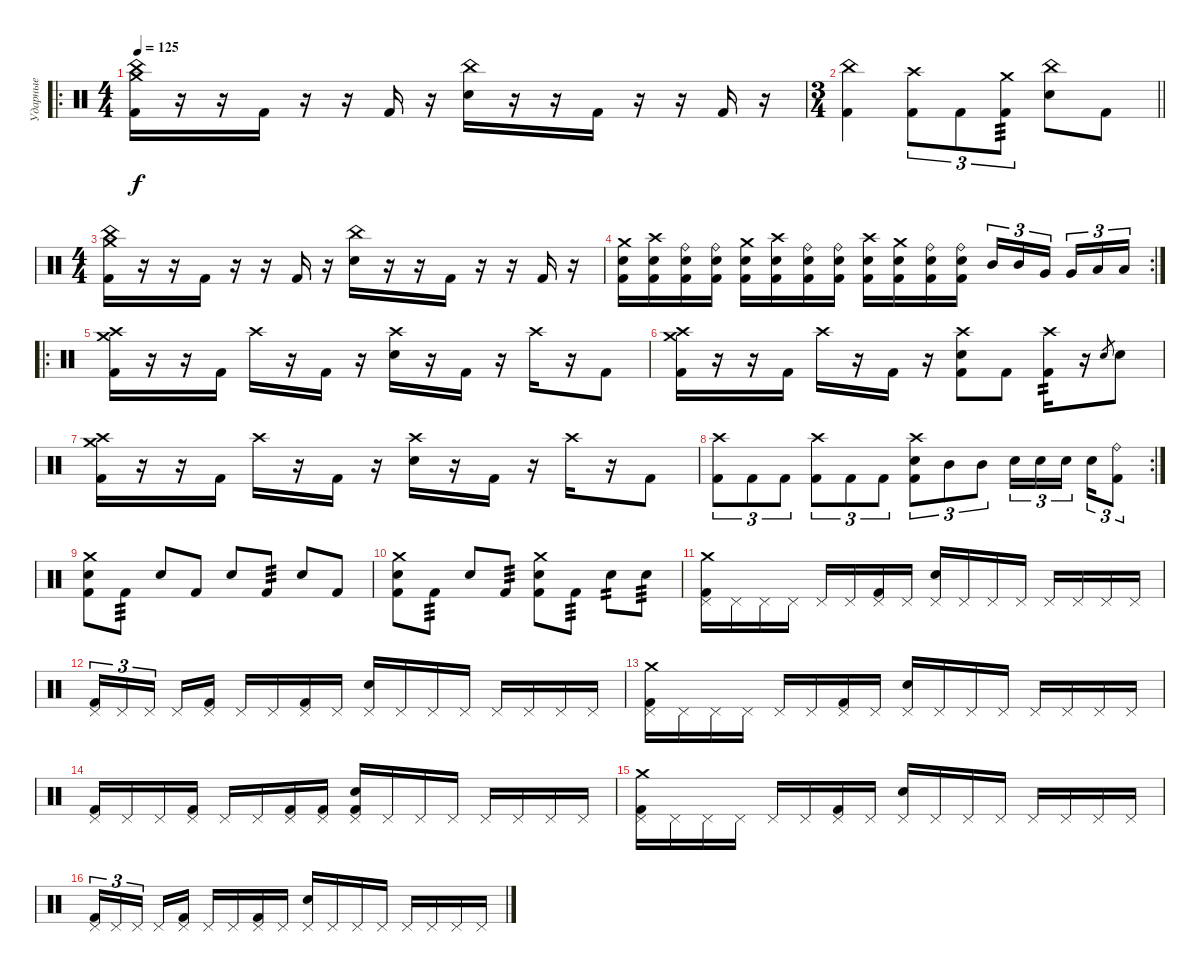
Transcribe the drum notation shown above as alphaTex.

\track ("Ударные" "Ударные") {instrument percussion}
\staff {score}
\articulation defaults
\ro
\ts (4 4)
\tempo 125
\clef neutral
\ks c
("China (hit)" "Crash medium (hit)" "Kick (hit) 2").16{dy f} r.16 r.16 "Kick (hit) 2".16 r.16 r.16 "Kick (hit) 2".16 r.16 ("China (hit)" "Snare (hit) 2").16 r.16 r.16 "Kick (hit) 2".16 r.16 r.16 "Kick (hit) 2".16 r.16 |
\ts (3 4)
\barLineRight lightlight
("China (hit)" "Kick (hit) 2").4 ("Crash high (hit)" "Kick (hit) 2").8{tu (3 2)} "Kick (hit) 2".8{tu (3 2)} ("Crash medium (hit)" "Kick (hit) 2").8{tu (3 2) tp 3} ("China (hit)" "Snare (hit) 2").8 "Kick (hit) 2".8 |
\ts (4 4)
("China (hit)" "Crash medium (hit)" "Kick (hit) 2").16 r.16 r.16 "Kick (hit) 2".16 r.16 r.16 "Kick (hit) 2".16 r.16 ("China (hit)" "Snare (hit) 2").16 r.16 r.16 "Kick (hit) 2".16 r.16 r.16 "Kick (hit) 2".16 r.16 |
\rc 2
("Crash medium (hit)" "Snare (hit) 2" "Kick (hit) 2").16 ("Crash high (hit)" "Snare (hit) 2" "Kick (hit) 2").16 ("Ride (bell)" "Snare (hit) 2" "Kick (hit) 2").16 ("Ride (bell)" "Snare (hit) 2" "Kick (hit) 2").16 ("Crash medium (hit)" "Snare (hit) 2" "Kick (hit) 2").16 ("Crash high (hit)" "Snare (hit) 2" "Kick (hit) 2").16 ("Ride (bell)" "Snare (hit) 2" "Kick (hit) 2").16 ("Ride (bell)" "Snare (hit) 2" "Kick (hit) 2").16 ("Crash high (hit)" "Snare (hit) 2" "Kick (hit) 2").16 ("Crash medium (hit)" "Snare (hit) 2" "Kick (hit) 2").16 ("Ride (bell)" "Snare (hit) 2" "Kick (hit) 2").16 ("Ride (bell)" "Snare (hit) 2" "Kick (hit) 2").16 "Mid Tom (hit)".16{tu (3 2)} "Mid Tom (hit)".16{tu (3 2)} "Very Low Tom (hit)".16{tu (3 2) beam splitsecondary} "Very Low Tom (hit)".16{tu (3 2)} "Low Floor Tom (hit)".16{tu (3 2)} "Low Floor Tom (hit)".16{tu (3 2)} |
\ro
("Crash high (hit)" "Crash medium (hit)" "Kick (hit) 2").16 r.16 r.16 "Kick (hit) 2".16 "Crash high (hit)".16 r.16 "Kick (hit) 2".16 r.16 ("Crash high (hit)" "Snare (hit) 2").16 r.16 "Kick (hit) 2".16 r.16 "Crash high (hit)".16 r.16 "Kick (hit) 2".8 |
("Crash high (hit)" "Crash medium (hit)" "Kick (hit) 2").16 r.16 r.16 "Kick (hit) 2".16 "Crash high (hit)".16 r.16 "Kick (hit) 2".16 r.16 ("Crash high (hit)" "Snare (hit) 2" "Kick (hit) 2").8 "Kick (hit) 2".8 ("Crash high (hit)" "Kick (hit) 2").16{tp 2} r.16 "Electric Snare (hit)".8{gr} "Electric Snare (hit)".8 |
("Crash high (hit)" "Crash medium (hit)" "Kick (hit) 2").16 r.16 r.16 "Kick (hit) 2".16 "Crash high (hit)".16 r.16 "Kick (hit) 2".16 r.16 ("Crash high (hit)" "Snare (hit) 2").16 r.16 "Kick (hit) 2".16 r.16 "Crash high (hit)".16 r.16 "Kick (hit) 2".8 |
\rc 2
("Crash high (hit)" "Kick (hit) 2").8{tu (3 2)} "Kick (hit) 2".8{tu (3 2)} "Kick (hit) 2".8{tu (3 2)} ("Crash high (hit)" "Kick (hit) 2").8{tu (3 2)} "Kick (hit) 2".8{tu (3 2)} "Kick (hit) 2".8{tu (3 2)} ("Snare (hit) 2" "Crash high (hit)" "Kick (hit) 2").8{tu (3 2)} "Mid Tom (hit)".8{tu (3 2)} "Mid Tom (hit)".8{tu (3 2)} "Snare (hit) 2".16{tu (3 2)} "Snare (hit) 2".16{tu (3 2)} "Snare (hit) 2".16{tu (3 2) beam splitsecondary} "Snare (hit) 2".16{tu (3 2)} ("Ride (bell)" "Kick (hit) 2").8{tu (3 2)} |
("Crash medium (hit)" "Snare (hit) 2" "Kick (hit) 2").8 "Kick (hit) 2".8{tp 3} "Snare (hit) 2".8 "Kick (hit) 2".8 "Snare (hit) 2".8 "Kick (hit) 2".8{tp 3} "Snare (hit) 2".8 "Kick (hit) 2".8 |
("Crash medium (hit)" "Snare (hit) 2" "Kick (hit) 2").8 "Kick (hit) 2".8{tp 3} "Snare (hit) 2".8 "Kick (hit) 2".8{tp 3} ("Crash medium (hit)" "Snare (hit) 2" "Kick (hit) 2").8 "Kick (hit) 2".8{tp 3} "Snare (hit) 2".8{tp 2} "Snare (hit) 2".8{tp 3} |
("Crash medium (hit)" "Pedal Hi-Hat (hit)" "Kick (hit) 2").16 "Pedal Hi-Hat (hit)".16 "Pedal Hi-Hat (hit)".16 "Pedal Hi-Hat (hit)".16 "Pedal Hi-Hat (hit)".16 "Pedal Hi-Hat (hit)".16 ("Pedal Hi-Hat (hit)" "Kick (hit) 2").16 "Pedal Hi-Hat (hit)".16 ("Hand Clap (hit)" "Pedal Hi-Hat (hit)").16 "Pedal Hi-Hat (hit)".16 "Pedal Hi-Hat (hit)".16 "Pedal Hi-Hat (hit)".16 "Pedal Hi-Hat (hit)".16 "Pedal Hi-Hat (hit)".16 "Pedal Hi-Hat (hit)".16 "Pedal Hi-Hat (hit)".16 |
("Pedal Hi-Hat (hit)" "Kick (hit) 2").16{tu (3 2)} "Pedal Hi-Hat (hit)".16{tu (3 2)} "Pedal Hi-Hat (hit)".16{tu (3 2) beam splitsecondary} "Pedal Hi-Hat (hit)".16 ("Pedal Hi-Hat (hit)" "Kick (hit) 2").16 "Pedal Hi-Hat (hit)".16 "Pedal Hi-Hat (hit)".16 ("Pedal Hi-Hat (hit)" "Kick (hit) 2").16 "Pedal Hi-Hat (hit)".16 ("Hand Clap (hit)" "Pedal Hi-Hat (hit)").16 "Pedal Hi-Hat (hit)".16 "Pedal Hi-Hat (hit)".16 "Pedal Hi-Hat (hit)".16 "Pedal Hi-Hat (hit)".16 "Pedal Hi-Hat (hit)".16 "Pedal Hi-Hat (hit)".16 "Pedal Hi-Hat (hit)".16 |
("Crash medium (hit)" "Pedal Hi-Hat (hit)" "Kick (hit) 2").16 "Pedal Hi-Hat (hit)".16 "Pedal Hi-Hat (hit)".16 "Pedal Hi-Hat (hit)".16 "Pedal Hi-Hat (hit)".16 "Pedal Hi-Hat (hit)".16 ("Pedal Hi-Hat (hit)" "Kick (hit) 2").16 "Pedal Hi-Hat (hit)".16 ("Hand Clap (hit)" "Pedal Hi-Hat (hit)").16 "Pedal Hi-Hat (hit)".16 "Pedal Hi-Hat (hit)".16 "Pedal Hi-Hat (hit)".16 "Pedal Hi-Hat (hit)".16 "Pedal Hi-Hat (hit)".16 "Pedal Hi-Hat (hit)".16 "Pedal Hi-Hat (hit)".16 |
("Pedal Hi-Hat (hit)" "Kick (hit) 2").16 "Pedal Hi-Hat (hit)".16 "Pedal Hi-Hat (hit)".16 ("Pedal Hi-Hat (hit)" "Kick (hit) 2").16 "Pedal Hi-Hat (hit)".16 "Pedal Hi-Hat (hit)".16 ("Pedal Hi-Hat (hit)" "Kick (hit) 2").16 ("Pedal Hi-Hat (hit)" "Kick (hit) 2").16 ("Hand Clap (hit)" "Pedal Hi-Hat (hit)" "Kick (hit) 2").16 "Pedal Hi-Hat (hit)".16 "Pedal Hi-Hat (hit)".16 "Pedal Hi-Hat (hit)".16 "Pedal Hi-Hat (hit)".16 "Pedal Hi-Hat (hit)".16 "Pedal Hi-Hat (hit)".16 "Pedal Hi-Hat (hit)".16 |
("Crash medium (hit)" "Pedal Hi-Hat (hit)" "Kick (hit) 2").16 "Pedal Hi-Hat (hit)".16 "Pedal Hi-Hat (hit)".16 "Pedal Hi-Hat (hit)".16 "Pedal Hi-Hat (hit)".16 "Pedal Hi-Hat (hit)".16 ("Pedal Hi-Hat (hit)" "Kick (hit) 2").16 "Pedal Hi-Hat (hit)".16 ("Hand Clap (hit)" "Pedal Hi-Hat (hit)").16 "Pedal Hi-Hat (hit)".16 "Pedal Hi-Hat (hit)".16 "Pedal Hi-Hat (hit)".16 "Pedal Hi-Hat (hit)".16 "Pedal Hi-Hat (hit)".16 "Pedal Hi-Hat (hit)".16 "Pedal Hi-Hat (hit)".16 |
("Pedal Hi-Hat (hit)" "Kick (hit) 2").16{tu (3 2)} "Pedal Hi-Hat (hit)".16{tu (3 2)} "Pedal Hi-Hat (hit)".16{tu (3 2) beam splitsecondary} "Pedal Hi-Hat (hit)".16 ("Pedal Hi-Hat (hit)" "Kick (hit) 2").16 "Pedal Hi-Hat (hit)".16 "Pedal Hi-Hat (hit)".16 ("Pedal Hi-Hat (hit)" "Kick (hit) 2").16 "Pedal Hi-Hat (hit)".16 ("Hand Clap (hit)" "Pedal Hi-Hat (hit)").16 "Pedal Hi-Hat (hit)".16 "Pedal Hi-Hat (hit)".16 "Pedal Hi-Hat (hit)".16 "Pedal Hi-Hat (hit)".16 "Pedal Hi-Hat (hit)".16 "Pedal Hi-Hat (hit)".16 "Pedal Hi-Hat (hit)".16
